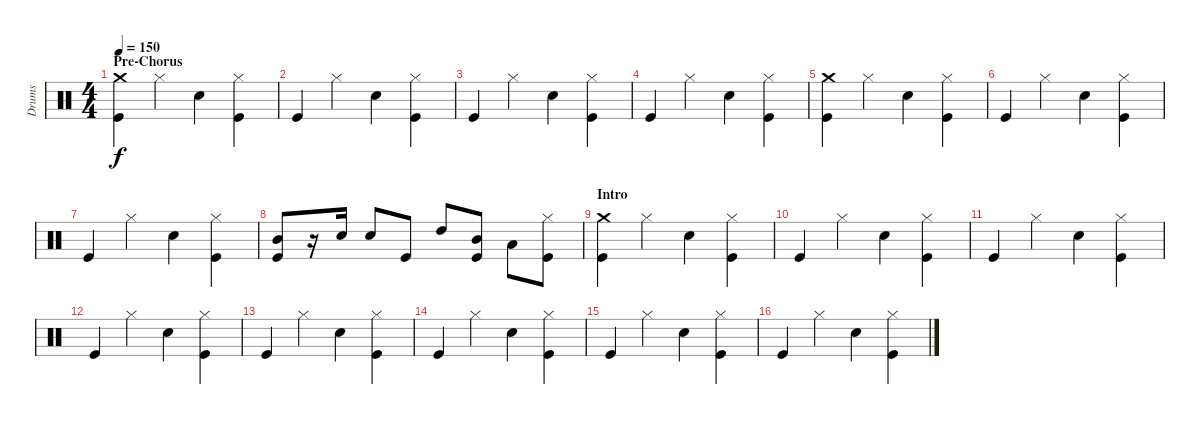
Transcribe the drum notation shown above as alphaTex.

\track ("Drums" "Drums") {instrument percussion}
\staff {score}
\articulation defaults
\ts (4 4)
\section ("" "Pre-Chorus")
\tempo 150
\clef neutral
\ks c
("Crash medium (hit)" "Kick (hit)").4{dy f} "Hi-Hat (closed)".4 "Electric Snare (hit)".4 ("Hi-Hat (closed)" "Kick (hit)").4 |
"Kick (hit)".4 "Hi-Hat (closed)".4 "Electric Snare (hit)".4 ("Hi-Hat (closed)" "Kick (hit)").4 |
"Kick (hit)".4 "Hi-Hat (closed)".4 "Electric Snare (hit)".4 ("Hi-Hat (closed)" "Kick (hit)").4 |
"Kick (hit)".4 "Hi-Hat (closed)".4 "Electric Snare (hit)".4 ("Hi-Hat (closed)" "Kick (hit)").4 |
("Crash medium (hit)" "Kick (hit)").4 "Hi-Hat (closed)".4 "Electric Snare (hit)".4 ("Hi-Hat (closed)" "Kick (hit)").4 |
"Kick (hit)".4 "Hi-Hat (closed)".4 "Electric Snare (hit)".4 ("Hi-Hat (closed)" "Kick (hit)").4 |
"Kick (hit)".4 "Hi-Hat (closed)".4 "Electric Snare (hit)".4 ("Hi-Hat (closed)" "Kick (hit)").4 |
("Mid Tom (hit)" "Kick (hit)").8 r.16 "Electric Snare (hit)".16 "Electric Snare (hit)".8 "Kick (hit)".8 "High Tom (hit)".8 ("Mid Tom (hit)" "Kick (hit)").8 "Low Floor Tom (hit)".8 ("Hi-Hat (closed)" "Kick (hit)").8 |
\section ("" "Intro")
("Crash medium (hit)" "Kick (hit)").4 "Hi-Hat (closed)".4 "Electric Snare (hit)".4 ("Hi-Hat (closed)" "Kick (hit)").4 |
"Kick (hit)".4 "Hi-Hat (closed)".4 "Electric Snare (hit)".4 ("Hi-Hat (closed)" "Kick (hit)").4 |
"Kick (hit)".4 "Hi-Hat (closed)".4 "Electric Snare (hit)".4 ("Hi-Hat (closed)" "Kick (hit)").4 |
"Kick (hit)".4 "Hi-Hat (closed)".4 "Electric Snare (hit)".4 ("Hi-Hat (closed)" "Kick (hit)").4 |
"Kick (hit)".4 "Hi-Hat (closed)".4 "Electric Snare (hit)".4 ("Hi-Hat (closed)" "Kick (hit)").4 |
"Kick (hit)".4 "Hi-Hat (closed)".4 "Electric Snare (hit)".4 ("Hi-Hat (closed)" "Kick (hit)").4 |
"Kick (hit)".4 "Hi-Hat (closed)".4 "Electric Snare (hit)".4 ("Hi-Hat (closed)" "Kick (hit)").4 |
"Kick (hit)".4 "Hi-Hat (closed)".4 "Electric Snare (hit)".4 ("Hi-Hat (closed)" "Kick (hit)").4
